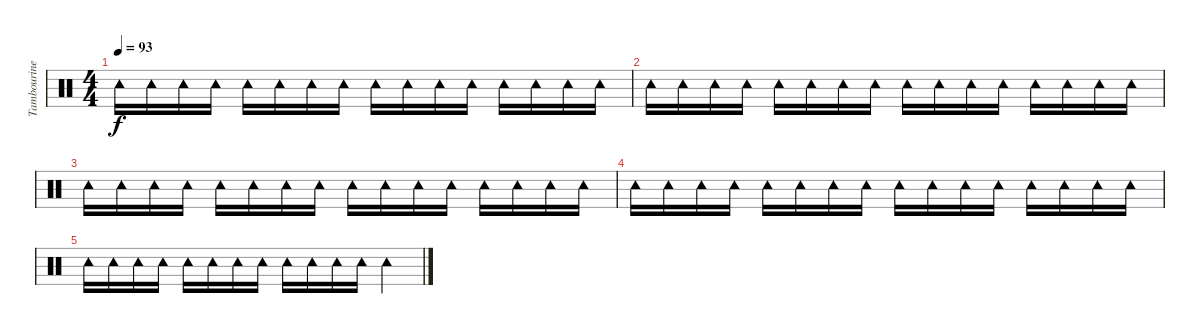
\track ("Tambourine" "Tambourine") {instrument percussion}
\staff {score}
\articulation defaults
\ts (4 4)
\tempo 93
\clef neutral
\ks c "Tambourine (hit)".16{dy f} "Tambourine (hit)".16 "Tambourine (hit)".16 "Tambourine (hit)".16 "Tambourine (hit)".16 "Tambourine (hit)".16 "Tambourine (hit)".16 "Tambourine (hit)".16 "Tambourine (hit)".16 "Tambourine (hit)".16 "Tambourine (hit)".16 "Tambourine (hit)".16 "Tambourine (hit)".16 "Tambourine (hit)".16 "Tambourine (hit)".16 "Tambourine (hit)".16
|
"Tambourine (hit)".16 "Tambourine (hit)".16 "Tambourine (hit)".16 "Tambourine (hit)".16 "Tambourine (hit)".16 "Tambourine (hit)".16 "Tambourine (hit)".16 "Tambourine (hit)".16 "Tambourine (hit)".16 "Tambourine (hit)".16 "Tambourine (hit)".16 "Tambourine (hit)".16 "Tambourine (hit)".16 "Tambourine (hit)".16 "Tambourine (hit)".16 "Tambourine (hit)".16 |
"Tambourine (hit)".16 "Tambourine (hit)".16 "Tambourine (hit)".16 "Tambourine (hit)".16 "Tambourine (hit)".16 "Tambourine (hit)".16 "Tambourine (hit)".16 "Tambourine (hit)".16 "Tambourine (hit)".16 "Tambourine (hit)".16 "Tambourine (hit)".16 "Tambourine (hit)".16 "Tambourine (hit)".16 "Tambourine (hit)".16 "Tambourine (hit)".16 "Tambourine (hit)".16 |
"Tambourine (hit)".16 "Tambourine (hit)".16 "Tambourine (hit)".16 "Tambourine (hit)".16 "Tambourine (hit)".16 "Tambourine (hit)".16 "Tambourine (hit)".16 "Tambourine (hit)".16 "Tambourine (hit)".16 "Tambourine (hit)".16 "Tambourine (hit)".16 "Tambourine (hit)".16 "Tambourine (hit)".16 "Tambourine (hit)".16 "Tambourine (hit)".16 "Tambourine (hit)".16 |
"Tambourine (hit)".16 "Tambourine (hit)".16 "Tambourine (hit)".16 "Tambourine (hit)".16 "Tambourine (hit)".16 "Tambourine (hit)".16 "Tambourine (hit)".16 "Tambourine (hit)".16 "Tambourine (hit)".16 "Tambourine (hit)".16 "Tambourine (hit)".16 "Tambourine (hit)".16 "Tambourine (hit)".4
